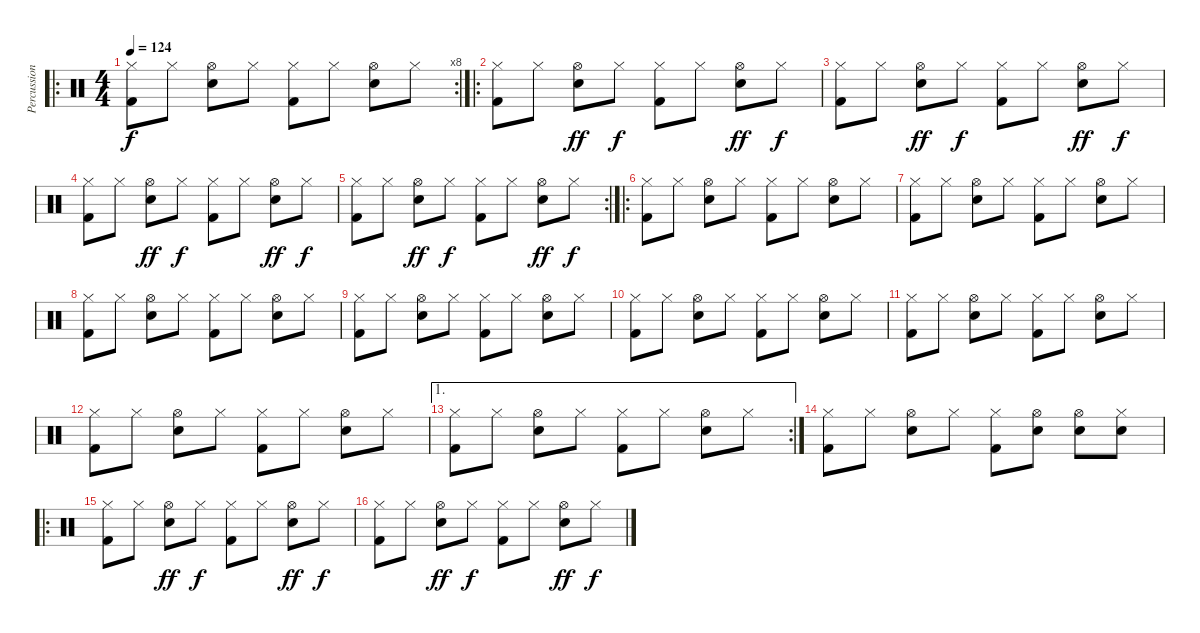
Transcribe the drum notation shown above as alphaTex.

\track ("Percussion" "Percussion") {instrument percussion}
\staff {score}
\articulation defaults
\ro
\rc 8
\ts (4 4)
\tempo 124
\clef neutral
\ks c
("Hi-Hat (closed)" "Kick (hit) 2").8{dy f} "Hi-Hat (closed)".8 ("Hi-Hat (open)" "Snare (hit) 2").8 "Hi-Hat (closed)".8 ("Hi-Hat (closed)" "Kick (hit) 2").8 "Hi-Hat (closed)".8 ("Hi-Hat (open)" "Snare (hit) 2").8 "Hi-Hat (closed)".8 |
\ro
("Hi-Hat (closed)" "Kick (hit) 2").8 "Hi-Hat (closed)".8 ("Hi-Hat (open)" "Snare (hit) 2").8{dy ff} "Hi-Hat (closed)".8{dy f} ("Hi-Hat (closed)" "Kick (hit) 2").8 "Hi-Hat (closed)".8 ("Hi-Hat (open)" "Snare (hit) 2").8{dy ff} "Hi-Hat (closed)".8{dy f} |
("Hi-Hat (closed)" "Kick (hit) 2").8 "Hi-Hat (closed)".8 ("Hi-Hat (open)" "Snare (hit) 2").8{dy ff} "Hi-Hat (closed)".8{dy f} ("Hi-Hat (closed)" "Kick (hit) 2").8 "Hi-Hat (closed)".8 ("Hi-Hat (open)" "Snare (hit) 2").8{dy ff} "Hi-Hat (closed)".8{dy f} |
("Hi-Hat (closed)" "Kick (hit) 2").8 "Hi-Hat (closed)".8 ("Hi-Hat (open)" "Snare (hit) 2").8{dy ff} "Hi-Hat (closed)".8{dy f} ("Hi-Hat (closed)" "Kick (hit) 2").8 "Hi-Hat (closed)".8 ("Hi-Hat (open)" "Snare (hit) 2").8{dy ff} "Hi-Hat (closed)".8{dy f} |
\rc 2
("Hi-Hat (closed)" "Kick (hit) 2").8 "Hi-Hat (closed)".8 ("Hi-Hat (open)" "Snare (hit) 2").8{dy ff} "Hi-Hat (closed)".8{dy f} ("Hi-Hat (closed)" "Kick (hit) 2").8 "Hi-Hat (closed)".8 ("Hi-Hat (open)" "Snare (hit) 2").8{dy ff} "Hi-Hat (closed)".8{dy f} |
\ro
("Hi-Hat (closed)" "Kick (hit) 2").8 "Hi-Hat (closed)".8 ("Hi-Hat (open)" "Snare (hit) 2").8 "Hi-Hat (closed)".8 ("Hi-Hat (closed)" "Kick (hit) 2").8 "Hi-Hat (closed)".8 ("Hi-Hat (open)" "Snare (hit) 2").8 "Hi-Hat (closed)".8 |
("Hi-Hat (closed)" "Kick (hit) 2").8 "Hi-Hat (closed)".8 ("Hi-Hat (open)" "Snare (hit) 2").8 "Hi-Hat (closed)".8 ("Hi-Hat (closed)" "Kick (hit) 2").8 "Hi-Hat (closed)".8 ("Hi-Hat (open)" "Snare (hit) 2").8 "Hi-Hat (closed)".8 |
("Hi-Hat (closed)" "Kick (hit) 2").8 "Hi-Hat (closed)".8 ("Hi-Hat (open)" "Snare (hit) 2").8 "Hi-Hat (closed)".8 ("Hi-Hat (closed)" "Kick (hit) 2").8 "Hi-Hat (closed)".8 ("Hi-Hat (open)" "Snare (hit) 2").8 "Hi-Hat (closed)".8 |
("Hi-Hat (closed)" "Kick (hit) 2").8 "Hi-Hat (closed)".8 ("Hi-Hat (open)" "Snare (hit) 2").8 "Hi-Hat (closed)".8 ("Hi-Hat (closed)" "Kick (hit) 2").8 "Hi-Hat (closed)".8 ("Hi-Hat (open)" "Snare (hit) 2").8 "Hi-Hat (closed)".8 |
("Hi-Hat (closed)" "Kick (hit) 2").8 "Hi-Hat (closed)".8 ("Hi-Hat (open)" "Snare (hit) 2").8 "Hi-Hat (closed)".8 ("Hi-Hat (closed)" "Kick (hit) 2").8 "Hi-Hat (closed)".8 ("Hi-Hat (open)" "Snare (hit) 2").8 "Hi-Hat (closed)".8 |
("Hi-Hat (closed)" "Kick (hit) 2").8 "Hi-Hat (closed)".8 ("Hi-Hat (open)" "Snare (hit) 2").8 "Hi-Hat (closed)".8 ("Hi-Hat (closed)" "Kick (hit) 2").8 "Hi-Hat (closed)".8 ("Hi-Hat (open)" "Snare (hit) 2").8 "Hi-Hat (closed)".8 |
("Hi-Hat (closed)" "Kick (hit) 2").8 "Hi-Hat (closed)".8 ("Hi-Hat (open)" "Snare (hit) 2").8 "Hi-Hat (closed)".8 ("Hi-Hat (closed)" "Kick (hit) 2").8 "Hi-Hat (closed)".8 ("Hi-Hat (open)" "Snare (hit) 2").8 "Hi-Hat (closed)".8 |
\ae 1
\rc 2
("Hi-Hat (closed)" "Kick (hit) 2").8 "Hi-Hat (closed)".8 ("Hi-Hat (open)" "Snare (hit) 2").8 "Hi-Hat (closed)".8 ("Hi-Hat (closed)" "Kick (hit) 2").8 "Hi-Hat (closed)".8 ("Hi-Hat (open)" "Snare (hit) 2").8 "Hi-Hat (closed)".8 |
("Hi-Hat (closed)" "Kick (hit) 2").8 "Hi-Hat (closed)".8 ("Hi-Hat (open)" "Snare (hit) 2").8 "Hi-Hat (closed)".8 ("Hi-Hat (closed)" "Kick (hit) 2").8 ("Hi-Hat (open)" "Snare (hit) 2").8 ("Hi-Hat (open)" "Snare (hit) 2").8 ("Hi-Hat (closed)" "Snare (hit) 2").8 |
\ro
("Hi-Hat (closed)" "Kick (hit) 2").8 "Hi-Hat (closed)".8 ("Hi-Hat (open)" "Snare (hit) 2").8{dy ff} "Hi-Hat (closed)".8{dy f} ("Hi-Hat (closed)" "Kick (hit) 2").8 "Hi-Hat (closed)".8 ("Hi-Hat (open)" "Snare (hit) 2").8{dy ff} "Hi-Hat (closed)".8{dy f} |
("Hi-Hat (closed)" "Kick (hit) 2").8 "Hi-Hat (closed)".8 ("Hi-Hat (open)" "Snare (hit) 2").8{dy ff} "Hi-Hat (closed)".8{dy f} ("Hi-Hat (closed)" "Kick (hit) 2").8 "Hi-Hat (closed)".8 ("Hi-Hat (open)" "Snare (hit) 2").8{dy ff} "Hi-Hat (closed)".8{dy f}
